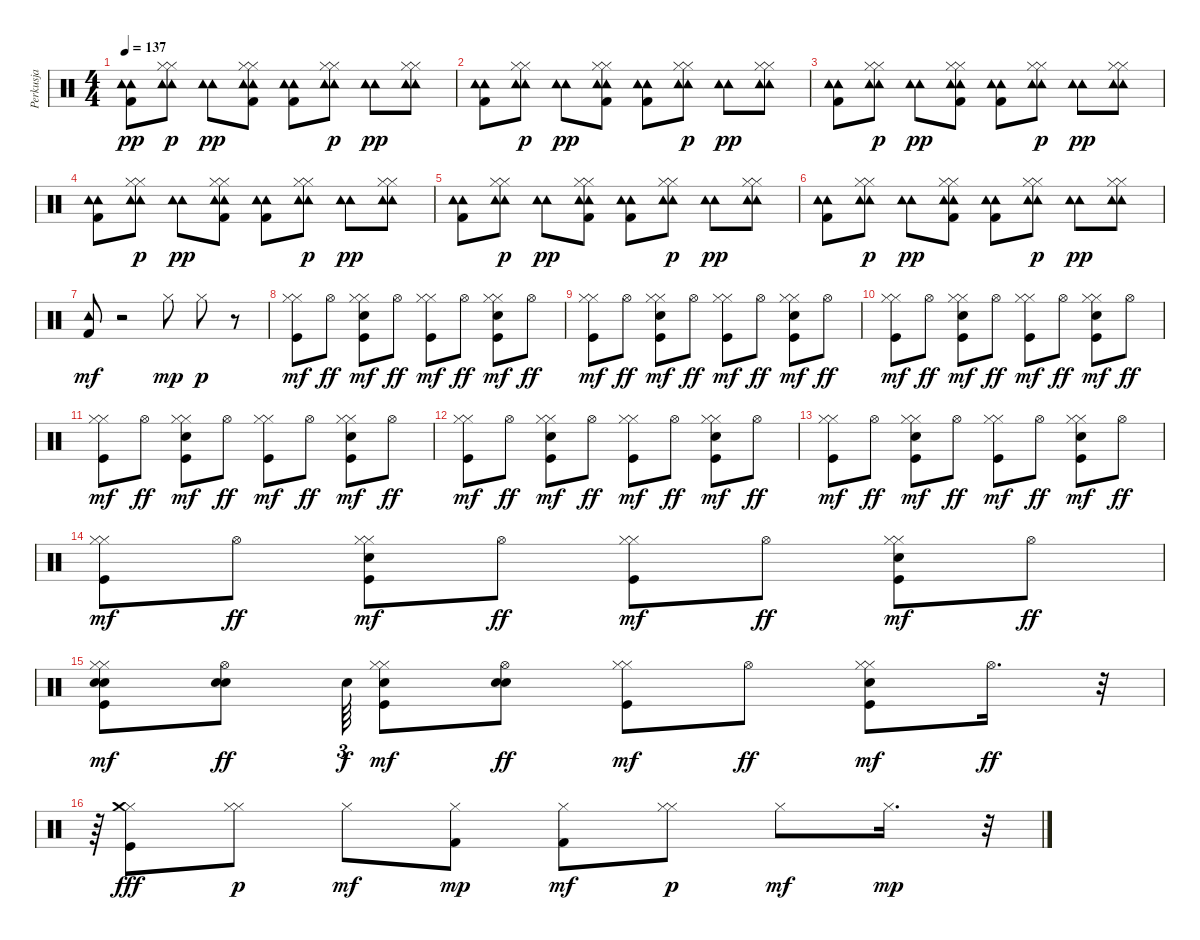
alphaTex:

\track ("Perkusja" "Perkusja") {instrument percussion}
\staff {score}
\articulation defaults
\ts (4 4)
\tempo 137
\clef neutral
\ks c
("Tambourine (hit)" "Kick (hit) 2" "Tambourine (hit)").8{dy pp} ("Tambourine (hit)" "Hi-Hat (closed)" "Tambourine (hit)" "Hi-Hat (closed)").8{dy p} ("Tambourine (hit)" "Tambourine (hit)").8{dy pp} ("Tambourine (hit)" "Hi-Hat (closed)" "Kick (hit) 2" "Hi-Hat (closed)" "Tambourine (hit)").8 ("Tambourine (hit)" "Kick (hit) 2" "Tambourine (hit)").8 ("Tambourine (hit)" "Hi-Hat (closed)" "Tambourine (hit)" "Hi-Hat (closed)").8{dy p} ("Tambourine (hit)" "Tambourine (hit)").8{dy pp} ("Tambourine (hit)" "Hi-Hat (closed)" "Hi-Hat (closed)" "Tambourine (hit)").8 |
("Tambourine (hit)" "Kick (hit) 2" "Tambourine (hit)").8 ("Tambourine (hit)" "Hi-Hat (closed)" "Tambourine (hit)" "Hi-Hat (closed)").8{dy p} ("Tambourine (hit)" "Tambourine (hit)").8{dy pp} ("Tambourine (hit)" "Hi-Hat (closed)" "Kick (hit) 2" "Hi-Hat (closed)" "Tambourine (hit)").8 ("Tambourine (hit)" "Kick (hit) 2" "Tambourine (hit)").8 ("Tambourine (hit)" "Hi-Hat (closed)" "Tambourine (hit)" "Hi-Hat (closed)").8{dy p} ("Tambourine (hit)" "Tambourine (hit)").8{dy pp} ("Tambourine (hit)" "Hi-Hat (closed)" "Hi-Hat (closed)" "Tambourine (hit)").8 |
("Tambourine (hit)" "Kick (hit) 2" "Tambourine (hit)").8 ("Tambourine (hit)" "Hi-Hat (closed)" "Tambourine (hit)" "Hi-Hat (closed)").8{dy p} ("Tambourine (hit)" "Tambourine (hit)").8{dy pp} ("Tambourine (hit)" "Hi-Hat (closed)" "Kick (hit) 2" "Hi-Hat (closed)" "Tambourine (hit)").8 ("Tambourine (hit)" "Kick (hit) 2" "Tambourine (hit)").8 ("Tambourine (hit)" "Hi-Hat (closed)" "Tambourine (hit)" "Hi-Hat (closed)").8{dy p} ("Tambourine (hit)" "Tambourine (hit)").8{dy pp} ("Tambourine (hit)" "Hi-Hat (closed)" "Hi-Hat (closed)" "Tambourine (hit)").8 |
("Tambourine (hit)" "Kick (hit) 2" "Tambourine (hit)").8 ("Tambourine (hit)" "Hi-Hat (closed)" "Tambourine (hit)" "Hi-Hat (closed)").8{dy p} ("Tambourine (hit)" "Tambourine (hit)").8{dy pp} ("Tambourine (hit)" "Hi-Hat (closed)" "Kick (hit) 2" "Hi-Hat (closed)" "Tambourine (hit)").8 ("Tambourine (hit)" "Kick (hit) 2" "Tambourine (hit)").8 ("Tambourine (hit)" "Hi-Hat (closed)" "Tambourine (hit)" "Hi-Hat (closed)").8{dy p} ("Tambourine (hit)" "Tambourine (hit)").8{dy pp} ("Tambourine (hit)" "Hi-Hat (closed)" "Hi-Hat (closed)" "Tambourine (hit)").8 |
("Tambourine (hit)" "Kick (hit) 2" "Tambourine (hit)").8 ("Tambourine (hit)" "Hi-Hat (closed)" "Tambourine (hit)" "Hi-Hat (closed)").8{dy p} ("Tambourine (hit)" "Tambourine (hit)").8{dy pp} ("Tambourine (hit)" "Hi-Hat (closed)" "Kick (hit) 2" "Hi-Hat (closed)" "Tambourine (hit)").8 ("Tambourine (hit)" "Kick (hit) 2" "Tambourine (hit)").8 ("Tambourine (hit)" "Hi-Hat (closed)" "Tambourine (hit)" "Hi-Hat (closed)").8{dy p} ("Tambourine (hit)" "Tambourine (hit)").8{dy pp} ("Tambourine (hit)" "Hi-Hat (closed)" "Hi-Hat (closed)" "Tambourine (hit)").8 |
("Tambourine (hit)" "Kick (hit) 2" "Tambourine (hit)").8 ("Tambourine (hit)" "Hi-Hat (closed)" "Tambourine (hit)" "Hi-Hat (closed)").8{dy p} ("Tambourine (hit)" "Tambourine (hit)").8{dy pp} ("Tambourine (hit)" "Hi-Hat (closed)" "Kick (hit) 2" "Hi-Hat (closed)" "Tambourine (hit)").8 ("Tambourine (hit)" "Kick (hit) 2" "Tambourine (hit)").8 ("Tambourine (hit)" "Hi-Hat (closed)" "Tambourine (hit)" "Hi-Hat (closed)").8{dy p} ("Tambourine (hit)" "Tambourine (hit)").8{dy pp} ("Tambourine (hit)" "Hi-Hat (closed)" "Hi-Hat (closed)" "Tambourine (hit)").8 |
("Tambourine (hit)" "Kick (hit) 2").8{dy mf} r.2 "Hi-Hat (closed)".8{dy mp} "Hi-Hat (closed)".8{dy p} r.8 |
("Kick (hit)" "Hi-Hat (closed)" "Hi-Hat (closed)").8{dy mf} "Hi-Hat (open)".8{dy ff} ("Electric Snare (hit)" "Kick (hit)" "Hi-Hat (closed)" "Hi-Hat (closed)").8{dy mf} "Hi-Hat (open)".8{dy ff} ("Kick (hit)" "Hi-Hat (closed)" "Hi-Hat (closed)").8{dy mf} "Hi-Hat (open)".8{dy ff} ("Electric Snare (hit)" "Kick (hit)" "Hi-Hat (closed)" "Hi-Hat (closed)").8{dy mf} "Hi-Hat (open)".8{dy ff} |
("Kick (hit)" "Hi-Hat (closed)" "Hi-Hat (closed)").8{dy mf} "Hi-Hat (open)".8{dy ff} ("Electric Snare (hit)" "Kick (hit)" "Hi-Hat (closed)" "Hi-Hat (closed)").8{dy mf} "Hi-Hat (open)".8{dy ff} ("Kick (hit)" "Hi-Hat (closed)" "Hi-Hat (closed)").8{dy mf} "Hi-Hat (open)".8{dy ff} ("Electric Snare (hit)" "Kick (hit)" "Hi-Hat (closed)" "Hi-Hat (closed)").8{dy mf} "Hi-Hat (open)".8{dy ff} |
("Kick (hit)" "Hi-Hat (closed)" "Hi-Hat (closed)").8{dy mf} "Hi-Hat (open)".8{dy ff} ("Electric Snare (hit)" "Kick (hit)" "Hi-Hat (closed)" "Hi-Hat (closed)").8{dy mf} "Hi-Hat (open)".8{dy ff} ("Kick (hit)" "Hi-Hat (closed)" "Hi-Hat (closed)").8{dy mf} "Hi-Hat (open)".8{dy ff} ("Electric Snare (hit)" "Kick (hit)" "Hi-Hat (closed)" "Hi-Hat (closed)").8{dy mf} "Hi-Hat (open)".8{dy ff} |
("Kick (hit)" "Hi-Hat (closed)" "Hi-Hat (closed)").8{dy mf} "Hi-Hat (open)".8{dy ff} ("Electric Snare (hit)" "Kick (hit)" "Hi-Hat (closed)" "Hi-Hat (closed)").8{dy mf} "Hi-Hat (open)".8{dy ff} ("Kick (hit)" "Hi-Hat (closed)" "Hi-Hat (closed)").8{dy mf} "Hi-Hat (open)".8{dy ff} ("Electric Snare (hit)" "Kick (hit)" "Hi-Hat (closed)" "Hi-Hat (closed)").8{dy mf} "Hi-Hat (open)".8{dy ff} |
("Kick (hit)" "Hi-Hat (closed)" "Hi-Hat (closed)").8{dy mf} "Hi-Hat (open)".8{dy ff} ("Electric Snare (hit)" "Kick (hit)" "Hi-Hat (closed)" "Hi-Hat (closed)").8{dy mf} "Hi-Hat (open)".8{dy ff} ("Kick (hit)" "Hi-Hat (closed)" "Hi-Hat (closed)").8{dy mf} "Hi-Hat (open)".8{dy ff} ("Electric Snare (hit)" "Kick (hit)" "Hi-Hat (closed)" "Hi-Hat (closed)").8{dy mf} "Hi-Hat (open)".8{dy ff} |
("Kick (hit)" "Hi-Hat (closed)" "Hi-Hat (closed)").8{dy mf} "Hi-Hat (open)".8{dy ff} ("Electric Snare (hit)" "Kick (hit)" "Hi-Hat (closed)" "Hi-Hat (closed)").8{dy mf} "Hi-Hat (open)".8{dy ff} ("Kick (hit)" "Hi-Hat (closed)" "Hi-Hat (closed)").8{dy mf} "Hi-Hat (open)".8{dy ff} ("Electric Snare (hit)" "Kick (hit)" "Hi-Hat (closed)" "Hi-Hat (closed)").8{dy mf} "Hi-Hat (open)".8{dy ff} |
("Kick (hit)" "Hi-Hat (closed)" "Hi-Hat (closed)").8{dy mf} "Hi-Hat (open)".8{dy ff} ("Electric Snare (hit)" "Kick (hit)" "Hi-Hat (closed)" "Hi-Hat (closed)").8{dy mf} "Hi-Hat (open)".8{dy ff} ("Kick (hit)" "Hi-Hat (closed)" "Hi-Hat (closed)").8{dy mf} "Hi-Hat (open)".8{dy ff} ("Electric Snare (hit)" "Kick (hit)" "Hi-Hat (closed)" "Hi-Hat (closed)").8{dy mf} "Hi-Hat (open)".8{dy ff} |
("Electric Snare (hit)" "Kick (hit)" "Hi-Hat (closed)" "Electric Snare (hit)" "Hi-Hat (closed)").8{dy mf} ("Electric Snare (hit)" "Hi-Hat (open)" "Electric Snare (hit)").8{dy ff} "Electric Snare (hit)".64{tu (3 2) dy f} ("Kick (hit)" "Hi-Hat (closed)" "Electric Snare (hit)" "Hi-Hat (closed)").8{dy mf} ("Electric Snare (hit)" "Hi-Hat (open)" "Electric Snare (hit)").8{dy ff} ("Kick (hit)" "Hi-Hat (closed)" "Hi-Hat (closed)").8{dy mf} "Hi-Hat (open)".8{dy ff} ("Electric Snare (hit)" "Kick (hit)" "Hi-Hat (closed)" "Hi-Hat (closed)").8{dy mf} "Hi-Hat (open)".16{d dy ff} r.32{tu (3 2)} |
r.64{tu (3 2)} ("Hi-Hat (closed)" "Crash medium (hit)" "Kick (hit)").8{dy fff} ("Hi-Hat (closed)" "Hi-Hat (closed)").8{dy p} "Hi-Hat (closed)".8{dy mf} ("Hi-Hat (closed)" "Kick (hit) 2").8{dy mp} ("Hi-Hat (closed)" "Kick (hit) 2").8{dy mf} ("Hi-Hat (closed)" "Hi-Hat (closed)").8{dy p} "Hi-Hat (closed)".8{dy mf} "Hi-Hat (closed)".16{d dy mp} r.32{tu (3 2)}
